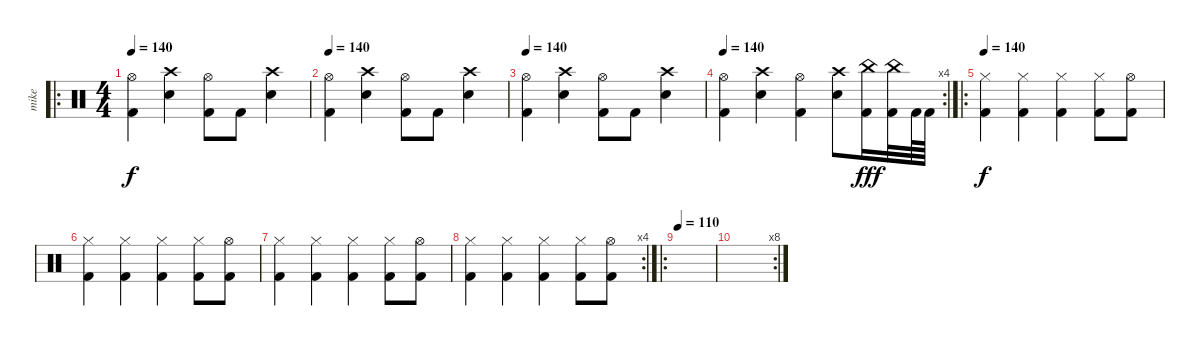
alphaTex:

\track ("mike" "mike") {instrument percussion}
\staff {score}
\articulation defaults
\ro
\ts (4 4)
\tempo 140
\clef neutral
\ks c
("Hi-Hat (open)" "Kick (hit) 2").4{dy f} ("Crash high (hit)" "Electric Snare (hit)").4 ("Hi-Hat (open)" "Kick (hit) 2").8 "Kick (hit) 2".8 ("Crash high (hit)" "Electric Snare (hit)").4 |
\tempo 140
("Hi-Hat (open)" "Kick (hit) 2").4 ("Crash high (hit)" "Electric Snare (hit)").4 ("Hi-Hat (open)" "Kick (hit) 2").8 "Kick (hit) 2".8 ("Crash high (hit)" "Electric Snare (hit)").4 |
\tempo 140
("Hi-Hat (open)" "Kick (hit) 2").4 ("Crash high (hit)" "Electric Snare (hit)").4 ("Hi-Hat (open)" "Kick (hit) 2").8 "Kick (hit) 2".8 ("Crash high (hit)" "Electric Snare (hit)").4 |
\rc 4
\tempo 140
("Hi-Hat (open)" "Kick (hit) 2").4 ("Crash high (hit)" "Electric Snare (hit)").4 ("Hi-Hat (open)" "Kick (hit) 2").4 ("Crash high (hit)" "Electric Snare (hit)").8 ("China (hit)" "Kick (hit) 2").16{dy fff} ("China (hit)" "Kick (hit) 2").32 "Kick (hit) 2".64 "Kick (hit) 2".64 |
\ro
\tempo 140
("Hi-Hat (closed)" "Kick (hit) 2").4{dy f} ("Hi-Hat (closed)" "Kick (hit) 2").4 ("Hi-Hat (closed)" "Kick (hit) 2").4 ("Hi-Hat (closed)" "Kick (hit) 2").8 ("Hi-Hat (open)" "Kick (hit) 2").8 |
("Hi-Hat (closed)" "Kick (hit) 2").4 ("Hi-Hat (closed)" "Kick (hit) 2").4 ("Hi-Hat (closed)" "Kick (hit) 2").4 ("Hi-Hat (closed)" "Kick (hit) 2").8 ("Hi-Hat (open)" "Kick (hit) 2").8 |
("Hi-Hat (closed)" "Kick (hit) 2").4 ("Hi-Hat (closed)" "Kick (hit) 2").4 ("Hi-Hat (closed)" "Kick (hit) 2").4 ("Hi-Hat (closed)" "Kick (hit) 2").8 ("Hi-Hat (open)" "Kick (hit) 2").8 |
\rc 4
("Hi-Hat (closed)" "Kick (hit) 2").4 ("Hi-Hat (closed)" "Kick (hit) 2").4 ("Hi-Hat (closed)" "Kick (hit) 2").4 ("Hi-Hat (closed)" "Kick (hit) 2").8 ("Hi-Hat (open)" "Kick (hit) 2").8 |
\ro
\tempo 110
|
\rc 8
